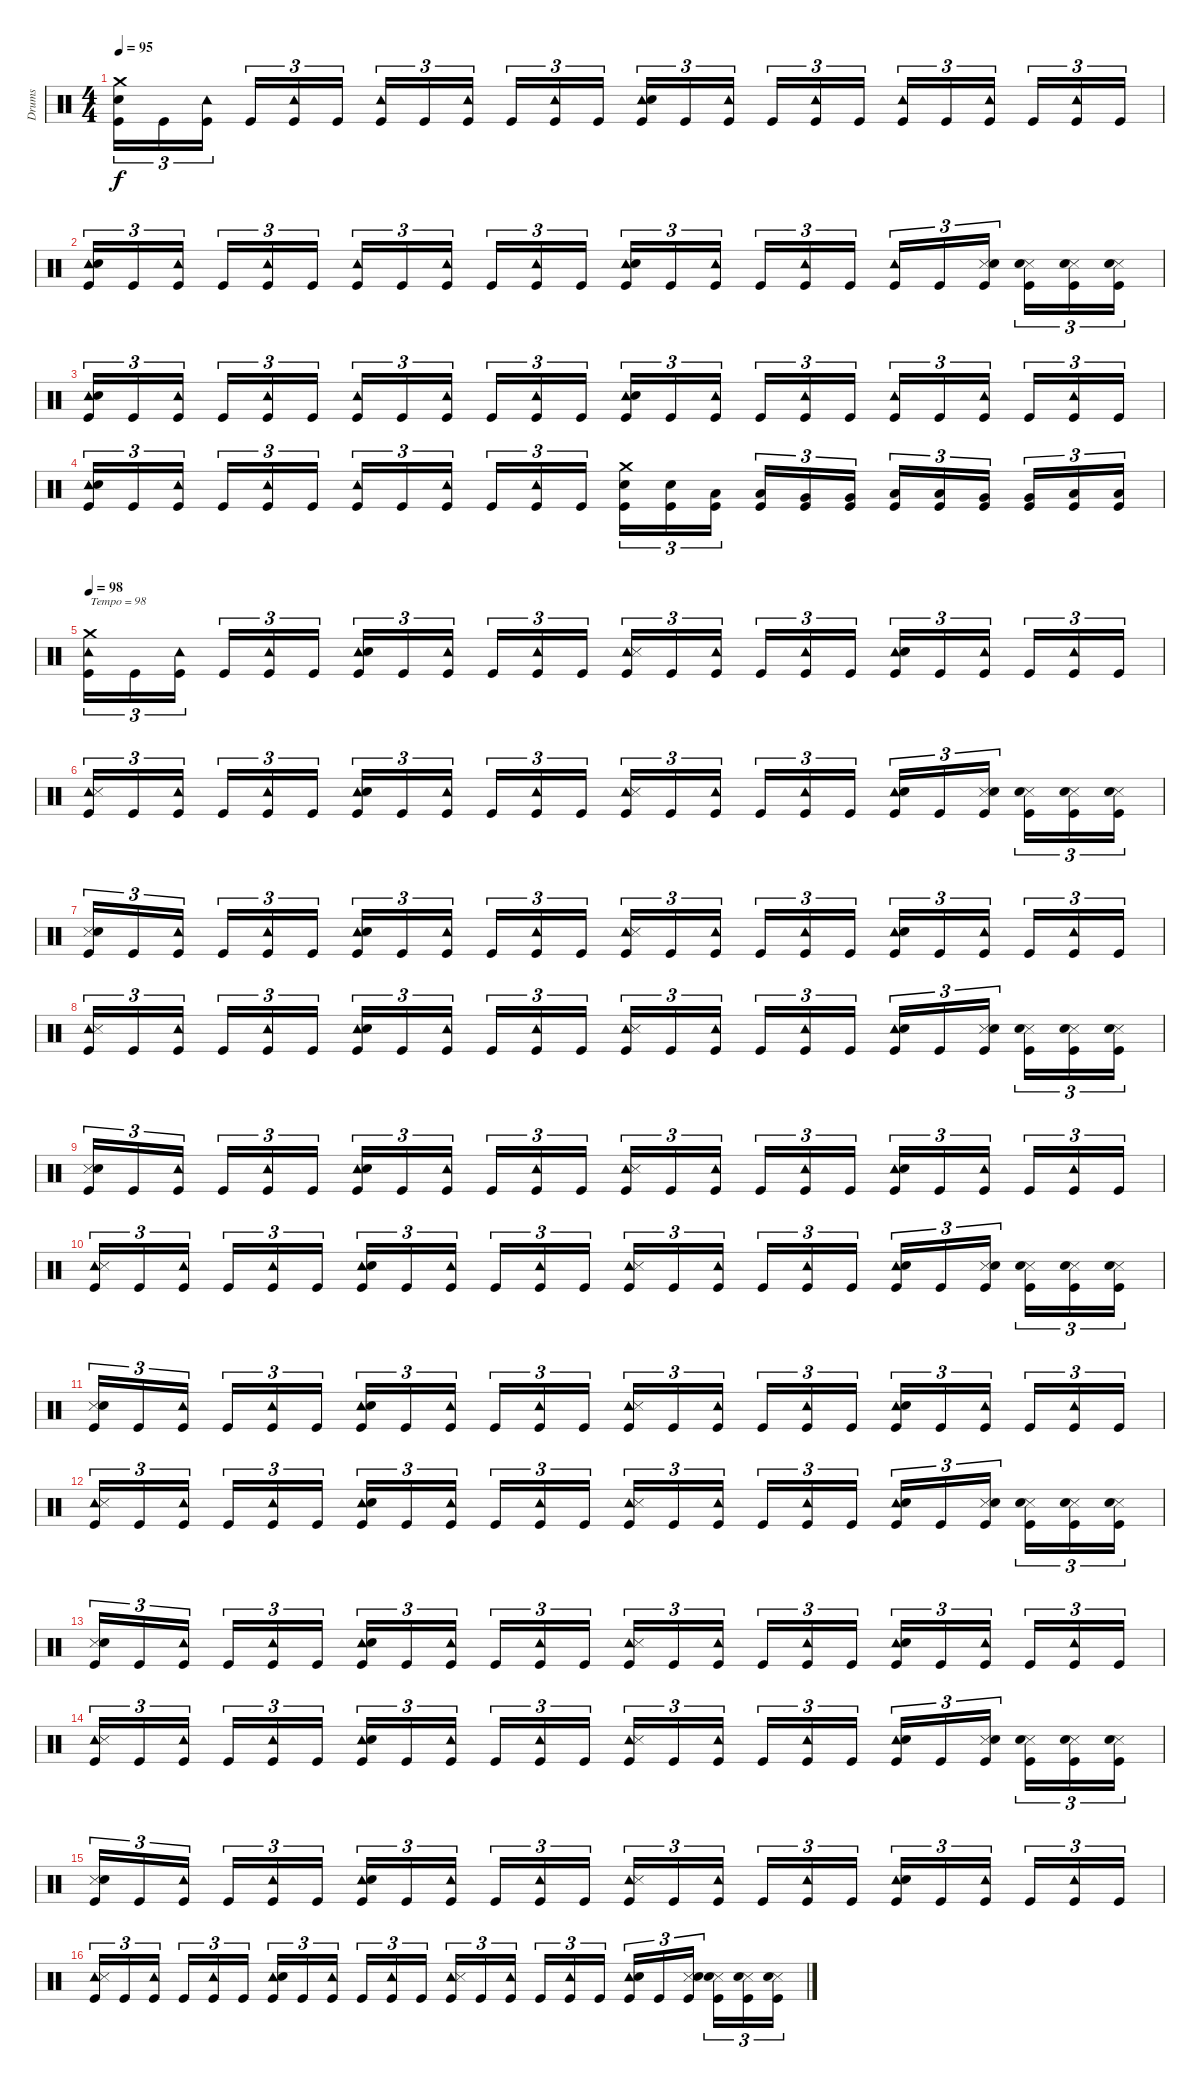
\track ("Drums" "Drums") {instrument percussion}
\staff {score}
\articulation defaults
\ts (4 4)
\tempo 95
\clef neutral
\ks c
("Crash medium (hit)" "Snare (hit) 2" "Kick (hit)").16{tu (3 2) dy f} "Kick (hit)".16{tu (3 2)} ("Tambourine (hit)" "Kick (hit)").16{tu (3 2)} "Kick (hit)".16{tu (3 2)} ("Tambourine (hit)" "Kick (hit)").16{tu (3 2)} "Kick (hit)".16{tu (3 2)} ("Tambourine (hit)" "Kick (hit)").16{tu (3 2)} "Kick (hit)".16{tu (3 2)} ("Tambourine (hit)" "Kick (hit)").16{tu (3 2)} "Kick (hit)".16{tu (3 2)} ("Tambourine (hit)" "Kick (hit)").16{tu (3 2)} "Kick (hit)".16{tu (3 2)} ("Tambourine (hit)" "Snare (hit) 2" "Kick (hit)").16{tu (3 2)} "Kick (hit)".16{tu (3 2)} ("Tambourine (hit)" "Kick (hit)").16{tu (3 2)} "Kick (hit)".16{tu (3 2)} ("Tambourine (hit)" "Kick (hit)").16{tu (3 2)} "Kick (hit)".16{tu (3 2)} ("Tambourine (hit)" "Kick (hit)").16{tu (3 2)} "Kick (hit)".16{tu (3 2)} ("Tambourine (hit)" "Kick (hit)").16{tu (3 2)} "Kick (hit)".16{tu (3 2)} ("Tambourine (hit)" "Kick (hit)").16{tu (3 2)} "Kick (hit)".16{tu (3 2)} |
("Tambourine (hit)" "Snare (hit) 2" "Kick (hit)").16{tu (3 2)} "Kick (hit)".16{tu (3 2)} ("Tambourine (hit)" "Kick (hit)").16{tu (3 2)} "Kick (hit)".16{tu (3 2)} ("Tambourine (hit)" "Kick (hit)").16{tu (3 2)} "Kick (hit)".16{tu (3 2)} ("Tambourine (hit)" "Kick (hit)").16{tu (3 2)} "Kick (hit)".16{tu (3 2)} ("Tambourine (hit)" "Kick (hit)").16{tu (3 2)} "Kick (hit)".16{tu (3 2)} ("Tambourine (hit)" "Kick (hit)").16{tu (3 2)} "Kick (hit)".16{tu (3 2)} ("Tambourine (hit)" "Snare (hit) 2" "Kick (hit)").16{tu (3 2)} "Kick (hit)".16{tu (3 2)} ("Tambourine (hit)" "Kick (hit)").16{tu (3 2)} "Kick (hit)".16{tu (3 2)} ("Tambourine (hit)" "Kick (hit)").16{tu (3 2)} "Kick (hit)".16{tu (3 2)} ("Tambourine (hit)" "Kick (hit)").16{tu (3 2)} "Kick (hit)".16{tu (3 2)} ("Snare (side stick) 3" "Snare (hit) 2" "Kick (hit)").16{tu (3 2)} ("Snare (side stick) 3" "Snare (hit) 2" "Kick (hit)").16{tu (3 2)} ("Snare (side stick) 3" "Snare (hit) 2" "Kick (hit)").16{tu (3 2)} ("Snare (side stick) 3" "Snare (hit) 2" "Kick (hit)").16{tu (3 2)} |
("Tambourine (hit)" "Snare (hit) 2" "Kick (hit)").16{tu (3 2)} "Kick (hit)".16{tu (3 2)} ("Tambourine (hit)" "Kick (hit)").16{tu (3 2)} "Kick (hit)".16{tu (3 2)} ("Tambourine (hit)" "Kick (hit)").16{tu (3 2)} "Kick (hit)".16{tu (3 2)} ("Tambourine (hit)" "Kick (hit)").16{tu (3 2)} "Kick (hit)".16{tu (3 2)} ("Tambourine (hit)" "Kick (hit)").16{tu (3 2)} "Kick (hit)".16{tu (3 2)} ("Tambourine (hit)" "Kick (hit)").16{tu (3 2)} "Kick (hit)".16{tu (3 2)} ("Tambourine (hit)" "Snare (hit) 2" "Kick (hit)").16{tu (3 2)} "Kick (hit)".16{tu (3 2)} ("Tambourine (hit)" "Kick (hit)").16{tu (3 2)} "Kick (hit)".16{tu (3 2)} ("Tambourine (hit)" "Kick (hit)").16{tu (3 2)} "Kick (hit)".16{tu (3 2)} ("Tambourine (hit)" "Kick (hit)").16{tu (3 2)} "Kick (hit)".16{tu (3 2)} ("Tambourine (hit)" "Kick (hit)").16{tu (3 2)} "Kick (hit)".16{tu (3 2)} ("Tambourine (hit)" "Kick (hit)").16{tu (3 2)} "Kick (hit)".16{tu (3 2)} |
("Tambourine (hit)" "Snare (hit) 2" "Kick (hit)").16{tu (3 2)} "Kick (hit)".16{tu (3 2)} ("Tambourine (hit)" "Kick (hit)").16{tu (3 2)} "Kick (hit)".16{tu (3 2)} ("Tambourine (hit)" "Kick (hit)").16{tu (3 2)} "Kick (hit)".16{tu (3 2)} ("Tambourine (hit)" "Kick (hit)").16{tu (3 2)} "Kick (hit)".16{tu (3 2)} ("Tambourine (hit)" "Kick (hit)").16{tu (3 2)} "Kick (hit)".16{tu (3 2)} ("Tambourine (hit)" "Kick (hit)").16{tu (3 2)} "Kick (hit)".16{tu (3 2)} ("Crash medium (hit)" "Snare (hit) 2" "Kick (hit)").16{tu (3 2)} ("Snare (hit) 2" "Kick (hit)").16{tu (3 2)} ("Low Floor Tom (hit)" "Kick (hit)").16{tu (3 2)} ("Low Floor Tom (hit)" "Kick (hit)").16{tu (3 2)} ("Very Low Tom (hit)" "Kick (hit)").16{tu (3 2)} ("Very Low Tom (hit)" "Kick (hit)").16{tu (3 2)} ("Low Floor Tom (hit)" "Kick (hit)").16{tu (3 2)} ("Low Floor Tom (hit)" "Kick (hit)").16{tu (3 2)} ("Very Low Tom (hit)" "Kick (hit)").16{tu (3 2)} ("Very Low Tom (hit)" "Kick (hit)").16{tu (3 2)} ("Low Tom (hit)" "Kick (hit)").16{tu (3 2)} ("Low Tom (hit)" "Kick (hit)").16{tu (3 2)} |
\tempo 98
("Crash medium (hit)" "Tambourine (hit)" "Kick (hit)").16{tu (3 2) txt "Tempo = 98"} "Kick (hit)".16{tu (3 2)} ("Tambourine (hit)" "Kick (hit)").16{tu (3 2)} "Kick (hit)".16{tu (3 2)} ("Tambourine (hit)" "Kick (hit)").16{tu (3 2)} "Kick (hit)".16{tu (3 2)} ("Tambourine (hit)" "Snare (hit) 2" "Kick (hit)").16{tu (3 2)} "Kick (hit)".16{tu (3 2)} ("Tambourine (hit)" "Kick (hit)").16{tu (3 2)} "Kick (hit)".16{tu (3 2)} ("Tambourine (hit)" "Kick (hit)").16{tu (3 2)} "Kick (hit)".16{tu (3 2)} ("Tambourine (hit)" "Snare (side stick) 3" "Kick (hit)").16{tu (3 2)} "Kick (hit)".16{tu (3 2)} ("Tambourine (hit)" "Kick (hit)").16{tu (3 2)} "Kick (hit)".16{tu (3 2)} ("Tambourine (hit)" "Kick (hit)").16{tu (3 2)} "Kick (hit)".16{tu (3 2)} ("Tambourine (hit)" "Snare (hit) 2" "Kick (hit)").16{tu (3 2)} "Kick (hit)".16{tu (3 2)} ("Tambourine (hit)" "Kick (hit)").16{tu (3 2)} "Kick (hit)".16{tu (3 2)} ("Tambourine (hit)" "Kick (hit)").16{tu (3 2)} "Kick (hit)".16{tu (3 2)} |
("Tambourine (hit)" "Snare (side stick) 3" "Kick (hit)").16{tu (3 2)} "Kick (hit)".16{tu (3 2)} ("Tambourine (hit)" "Kick (hit)").16{tu (3 2)} "Kick (hit)".16{tu (3 2)} ("Tambourine (hit)" "Kick (hit)").16{tu (3 2)} "Kick (hit)".16{tu (3 2)} ("Tambourine (hit)" "Snare (hit) 2" "Kick (hit)").16{tu (3 2)} "Kick (hit)".16{tu (3 2)} ("Tambourine (hit)" "Kick (hit)").16{tu (3 2)} "Kick (hit)".16{tu (3 2)} ("Tambourine (hit)" "Kick (hit)").16{tu (3 2)} "Kick (hit)".16{tu (3 2)} ("Tambourine (hit)" "Snare (side stick) 3" "Kick (hit)").16{tu (3 2)} "Kick (hit)".16{tu (3 2)} ("Tambourine (hit)" "Kick (hit)").16{tu (3 2)} "Kick (hit)".16{tu (3 2)} ("Tambourine (hit)" "Kick (hit)").16{tu (3 2)} "Kick (hit)".16{tu (3 2)} ("Tambourine (hit)" "Snare (hit) 2" "Kick (hit)").16{tu (3 2)} "Kick (hit)".16{tu (3 2)} ("Snare (side stick) 3" "Snare (hit) 2" "Kick (hit)").16{tu (3 2)} ("Snare (side stick) 3" "Snare (hit) 2" "Kick (hit)").16{tu (3 2)} ("Snare (side stick) 3" "Snare (hit) 2" "Kick (hit)").16{tu (3 2)} ("Snare (side stick) 3" "Snare (hit) 2" "Kick (hit)").16{tu (3 2)} |
("Snare (side stick) 3" "Snare (hit) 2" "Kick (hit)").16{tu (3 2)} "Kick (hit)".16{tu (3 2)} ("Tambourine (hit)" "Kick (hit)").16{tu (3 2)} "Kick (hit)".16{tu (3 2)} ("Tambourine (hit)" "Kick (hit)").16{tu (3 2)} "Kick (hit)".16{tu (3 2)} ("Tambourine (hit)" "Snare (hit) 2" "Kick (hit)").16{tu (3 2)} "Kick (hit)".16{tu (3 2)} ("Tambourine (hit)" "Kick (hit)").16{tu (3 2)} "Kick (hit)".16{tu (3 2)} ("Tambourine (hit)" "Kick (hit)").16{tu (3 2)} "Kick (hit)".16{tu (3 2)} ("Tambourine (hit)" "Snare (side stick) 3" "Kick (hit)").16{tu (3 2)} "Kick (hit)".16{tu (3 2)} ("Tambourine (hit)" "Kick (hit)").16{tu (3 2)} "Kick (hit)".16{tu (3 2)} ("Tambourine (hit)" "Kick (hit)").16{tu (3 2)} "Kick (hit)".16{tu (3 2)} ("Tambourine (hit)" "Snare (hit) 2" "Kick (hit)").16{tu (3 2)} "Kick (hit)".16{tu (3 2)} ("Tambourine (hit)" "Kick (hit)").16{tu (3 2)} "Kick (hit)".16{tu (3 2)} ("Tambourine (hit)" "Kick (hit)").16{tu (3 2)} "Kick (hit)".16{tu (3 2)} |
("Tambourine (hit)" "Snare (side stick) 3" "Kick (hit)").16{tu (3 2)} "Kick (hit)".16{tu (3 2)} ("Tambourine (hit)" "Kick (hit)").16{tu (3 2)} "Kick (hit)".16{tu (3 2)} ("Tambourine (hit)" "Kick (hit)").16{tu (3 2)} "Kick (hit)".16{tu (3 2)} ("Tambourine (hit)" "Snare (hit) 2" "Kick (hit)").16{tu (3 2)} "Kick (hit)".16{tu (3 2)} ("Tambourine (hit)" "Kick (hit)").16{tu (3 2)} "Kick (hit)".16{tu (3 2)} ("Tambourine (hit)" "Kick (hit)").16{tu (3 2)} "Kick (hit)".16{tu (3 2)} ("Tambourine (hit)" "Snare (side stick) 3" "Kick (hit)").16{tu (3 2)} "Kick (hit)".16{tu (3 2)} ("Tambourine (hit)" "Kick (hit)").16{tu (3 2)} "Kick (hit)".16{tu (3 2)} ("Tambourine (hit)" "Kick (hit)").16{tu (3 2)} "Kick (hit)".16{tu (3 2)} ("Tambourine (hit)" "Snare (hit) 2" "Kick (hit)").16{tu (3 2)} "Kick (hit)".16{tu (3 2)} ("Snare (side stick) 3" "Snare (hit) 2" "Kick (hit)").16{tu (3 2)} ("Snare (side stick) 3" "Snare (hit) 2" "Kick (hit)").16{tu (3 2)} ("Snare (side stick) 3" "Snare (hit) 2" "Kick (hit)").16{tu (3 2)} ("Snare (side stick) 3" "Snare (hit) 2" "Kick (hit)").16{tu (3 2)} |
("Snare (side stick) 3" "Snare (hit) 2" "Kick (hit)").16{tu (3 2)} "Kick (hit)".16{tu (3 2)} ("Tambourine (hit)" "Kick (hit)").16{tu (3 2)} "Kick (hit)".16{tu (3 2)} ("Tambourine (hit)" "Kick (hit)").16{tu (3 2)} "Kick (hit)".16{tu (3 2)} ("Tambourine (hit)" "Snare (hit) 2" "Kick (hit)").16{tu (3 2)} "Kick (hit)".16{tu (3 2)} ("Tambourine (hit)" "Kick (hit)").16{tu (3 2)} "Kick (hit)".16{tu (3 2)} ("Tambourine (hit)" "Kick (hit)").16{tu (3 2)} "Kick (hit)".16{tu (3 2)} ("Tambourine (hit)" "Snare (side stick) 3" "Kick (hit)").16{tu (3 2)} "Kick (hit)".16{tu (3 2)} ("Tambourine (hit)" "Kick (hit)").16{tu (3 2)} "Kick (hit)".16{tu (3 2)} ("Tambourine (hit)" "Kick (hit)").16{tu (3 2)} "Kick (hit)".16{tu (3 2)} ("Tambourine (hit)" "Snare (hit) 2" "Kick (hit)").16{tu (3 2)} "Kick (hit)".16{tu (3 2)} ("Tambourine (hit)" "Kick (hit)").16{tu (3 2)} "Kick (hit)".16{tu (3 2)} ("Tambourine (hit)" "Kick (hit)").16{tu (3 2)} "Kick (hit)".16{tu (3 2)} |
("Tambourine (hit)" "Snare (side stick) 3" "Kick (hit)").16{tu (3 2)} "Kick (hit)".16{tu (3 2)} ("Tambourine (hit)" "Kick (hit)").16{tu (3 2)} "Kick (hit)".16{tu (3 2)} ("Tambourine (hit)" "Kick (hit)").16{tu (3 2)} "Kick (hit)".16{tu (3 2)} ("Tambourine (hit)" "Snare (hit) 2" "Kick (hit)").16{tu (3 2)} "Kick (hit)".16{tu (3 2)} ("Tambourine (hit)" "Kick (hit)").16{tu (3 2)} "Kick (hit)".16{tu (3 2)} ("Tambourine (hit)" "Kick (hit)").16{tu (3 2)} "Kick (hit)".16{tu (3 2)} ("Tambourine (hit)" "Snare (side stick) 3" "Kick (hit)").16{tu (3 2)} "Kick (hit)".16{tu (3 2)} ("Tambourine (hit)" "Kick (hit)").16{tu (3 2)} "Kick (hit)".16{tu (3 2)} ("Tambourine (hit)" "Kick (hit)").16{tu (3 2)} "Kick (hit)".16{tu (3 2)} ("Tambourine (hit)" "Snare (hit) 2" "Kick (hit)").16{tu (3 2)} "Kick (hit)".16{tu (3 2)} ("Snare (side stick) 3" "Snare (hit) 2" "Kick (hit)").16{tu (3 2)} ("Snare (side stick) 3" "Snare (hit) 2" "Kick (hit)").16{tu (3 2)} ("Snare (side stick) 3" "Snare (hit) 2" "Kick (hit)").16{tu (3 2)} ("Snare (side stick) 3" "Snare (hit) 2" "Kick (hit)").16{tu (3 2)} |
("Snare (side stick) 3" "Snare (hit) 2" "Kick (hit)").16{tu (3 2)} "Kick (hit)".16{tu (3 2)} ("Tambourine (hit)" "Kick (hit)").16{tu (3 2)} "Kick (hit)".16{tu (3 2)} ("Tambourine (hit)" "Kick (hit)").16{tu (3 2)} "Kick (hit)".16{tu (3 2)} ("Tambourine (hit)" "Snare (hit) 2" "Kick (hit)").16{tu (3 2)} "Kick (hit)".16{tu (3 2)} ("Tambourine (hit)" "Kick (hit)").16{tu (3 2)} "Kick (hit)".16{tu (3 2)} ("Tambourine (hit)" "Kick (hit)").16{tu (3 2)} "Kick (hit)".16{tu (3 2)} ("Tambourine (hit)" "Snare (side stick) 3" "Kick (hit)").16{tu (3 2)} "Kick (hit)".16{tu (3 2)} ("Tambourine (hit)" "Kick (hit)").16{tu (3 2)} "Kick (hit)".16{tu (3 2)} ("Tambourine (hit)" "Kick (hit)").16{tu (3 2)} "Kick (hit)".16{tu (3 2)} ("Tambourine (hit)" "Snare (hit) 2" "Kick (hit)").16{tu (3 2)} "Kick (hit)".16{tu (3 2)} ("Tambourine (hit)" "Kick (hit)").16{tu (3 2)} "Kick (hit)".16{tu (3 2)} ("Tambourine (hit)" "Kick (hit)").16{tu (3 2)} "Kick (hit)".16{tu (3 2)} |
("Tambourine (hit)" "Snare (side stick) 3" "Kick (hit)").16{tu (3 2)} "Kick (hit)".16{tu (3 2)} ("Tambourine (hit)" "Kick (hit)").16{tu (3 2)} "Kick (hit)".16{tu (3 2)} ("Tambourine (hit)" "Kick (hit)").16{tu (3 2)} "Kick (hit)".16{tu (3 2)} ("Tambourine (hit)" "Snare (hit) 2" "Kick (hit)").16{tu (3 2)} "Kick (hit)".16{tu (3 2)} ("Tambourine (hit)" "Kick (hit)").16{tu (3 2)} "Kick (hit)".16{tu (3 2)} ("Tambourine (hit)" "Kick (hit)").16{tu (3 2)} "Kick (hit)".16{tu (3 2)} ("Tambourine (hit)" "Snare (side stick) 3" "Kick (hit)").16{tu (3 2)} "Kick (hit)".16{tu (3 2)} ("Tambourine (hit)" "Kick (hit)").16{tu (3 2)} "Kick (hit)".16{tu (3 2)} ("Tambourine (hit)" "Kick (hit)").16{tu (3 2)} "Kick (hit)".16{tu (3 2)} ("Tambourine (hit)" "Snare (hit) 2" "Kick (hit)").16{tu (3 2)} "Kick (hit)".16{tu (3 2)} ("Snare (side stick) 3" "Snare (hit) 2" "Kick (hit)").16{tu (3 2)} ("Snare (side stick) 3" "Snare (hit) 2" "Kick (hit)").16{tu (3 2)} ("Snare (side stick) 3" "Snare (hit) 2" "Kick (hit)").16{tu (3 2)} ("Snare (side stick) 3" "Snare (hit) 2" "Kick (hit)").16{tu (3 2)} |
("Snare (side stick) 3" "Snare (hit) 2" "Kick (hit)").16{tu (3 2)} "Kick (hit)".16{tu (3 2)} ("Tambourine (hit)" "Kick (hit)").16{tu (3 2)} "Kick (hit)".16{tu (3 2)} ("Tambourine (hit)" "Kick (hit)").16{tu (3 2)} "Kick (hit)".16{tu (3 2)} ("Tambourine (hit)" "Snare (hit) 2" "Kick (hit)").16{tu (3 2)} "Kick (hit)".16{tu (3 2)} ("Tambourine (hit)" "Kick (hit)").16{tu (3 2)} "Kick (hit)".16{tu (3 2)} ("Tambourine (hit)" "Kick (hit)").16{tu (3 2)} "Kick (hit)".16{tu (3 2)} ("Tambourine (hit)" "Snare (side stick) 3" "Kick (hit)").16{tu (3 2)} "Kick (hit)".16{tu (3 2)} ("Tambourine (hit)" "Kick (hit)").16{tu (3 2)} "Kick (hit)".16{tu (3 2)} ("Tambourine (hit)" "Kick (hit)").16{tu (3 2)} "Kick (hit)".16{tu (3 2)} ("Tambourine (hit)" "Snare (hit) 2" "Kick (hit)").16{tu (3 2)} "Kick (hit)".16{tu (3 2)} ("Tambourine (hit)" "Kick (hit)").16{tu (3 2)} "Kick (hit)".16{tu (3 2)} ("Tambourine (hit)" "Kick (hit)").16{tu (3 2)} "Kick (hit)".16{tu (3 2)} |
("Tambourine (hit)" "Snare (side stick) 3" "Kick (hit)").16{tu (3 2)} "Kick (hit)".16{tu (3 2)} ("Tambourine (hit)" "Kick (hit)").16{tu (3 2)} "Kick (hit)".16{tu (3 2)} ("Tambourine (hit)" "Kick (hit)").16{tu (3 2)} "Kick (hit)".16{tu (3 2)} ("Tambourine (hit)" "Snare (hit) 2" "Kick (hit)").16{tu (3 2)} "Kick (hit)".16{tu (3 2)} ("Tambourine (hit)" "Kick (hit)").16{tu (3 2)} "Kick (hit)".16{tu (3 2)} ("Tambourine (hit)" "Kick (hit)").16{tu (3 2)} "Kick (hit)".16{tu (3 2)} ("Tambourine (hit)" "Snare (side stick) 3" "Kick (hit)").16{tu (3 2)} "Kick (hit)".16{tu (3 2)} ("Tambourine (hit)" "Kick (hit)").16{tu (3 2)} "Kick (hit)".16{tu (3 2)} ("Tambourine (hit)" "Kick (hit)").16{tu (3 2)} "Kick (hit)".16{tu (3 2)} ("Tambourine (hit)" "Snare (hit) 2" "Kick (hit)").16{tu (3 2)} "Kick (hit)".16{tu (3 2)} ("Snare (side stick) 3" "Snare (hit) 2" "Kick (hit)").16{tu (3 2)} ("Snare (side stick) 3" "Snare (hit) 2" "Kick (hit)").16{tu (3 2)} ("Snare (side stick) 3" "Snare (hit) 2" "Kick (hit)").16{tu (3 2)} ("Snare (side stick) 3" "Snare (hit) 2" "Kick (hit)").16{tu (3 2)} |
("Snare (side stick) 3" "Snare (hit) 2" "Kick (hit)").16{tu (3 2)} "Kick (hit)".16{tu (3 2)} ("Tambourine (hit)" "Kick (hit)").16{tu (3 2)} "Kick (hit)".16{tu (3 2)} ("Tambourine (hit)" "Kick (hit)").16{tu (3 2)} "Kick (hit)".16{tu (3 2)} ("Tambourine (hit)" "Snare (hit) 2" "Kick (hit)").16{tu (3 2)} "Kick (hit)".16{tu (3 2)} ("Tambourine (hit)" "Kick (hit)").16{tu (3 2)} "Kick (hit)".16{tu (3 2)} ("Tambourine (hit)" "Kick (hit)").16{tu (3 2)} "Kick (hit)".16{tu (3 2)} ("Tambourine (hit)" "Snare (side stick) 3" "Kick (hit)").16{tu (3 2)} "Kick (hit)".16{tu (3 2)} ("Tambourine (hit)" "Kick (hit)").16{tu (3 2)} "Kick (hit)".16{tu (3 2)} ("Tambourine (hit)" "Kick (hit)").16{tu (3 2)} "Kick (hit)".16{tu (3 2)} ("Tambourine (hit)" "Snare (hit) 2" "Kick (hit)").16{tu (3 2)} "Kick (hit)".16{tu (3 2)} ("Tambourine (hit)" "Kick (hit)").16{tu (3 2)} "Kick (hit)".16{tu (3 2)} ("Tambourine (hit)" "Kick (hit)").16{tu (3 2)} "Kick (hit)".16{tu (3 2)} |
("Tambourine (hit)" "Snare (side stick) 3" "Kick (hit)").16{tu (3 2)} "Kick (hit)".16{tu (3 2)} ("Tambourine (hit)" "Kick (hit)").16{tu (3 2)} "Kick (hit)".16{tu (3 2)} ("Tambourine (hit)" "Kick (hit)").16{tu (3 2)} "Kick (hit)".16{tu (3 2)} ("Tambourine (hit)" "Snare (hit) 2" "Kick (hit)").16{tu (3 2)} "Kick (hit)".16{tu (3 2)} ("Tambourine (hit)" "Kick (hit)").16{tu (3 2)} "Kick (hit)".16{tu (3 2)} ("Tambourine (hit)" "Kick (hit)").16{tu (3 2)} "Kick (hit)".16{tu (3 2)} ("Tambourine (hit)" "Snare (side stick) 3" "Kick (hit)").16{tu (3 2)} "Kick (hit)".16{tu (3 2)} ("Tambourine (hit)" "Kick (hit)").16{tu (3 2)} "Kick (hit)".16{tu (3 2)} ("Tambourine (hit)" "Kick (hit)").16{tu (3 2)} "Kick (hit)".16{tu (3 2)} ("Tambourine (hit)" "Snare (hit) 2" "Kick (hit)").16{tu (3 2)} "Kick (hit)".16{tu (3 2)} ("Snare (side stick) 3" "Snare (hit) 2" "Kick (hit)").16{tu (3 2)} ("Snare (side stick) 3" "Snare (hit) 2" "Kick (hit)").16{tu (3 2)} ("Snare (side stick) 3" "Snare (hit) 2" "Kick (hit)").16{tu (3 2)} ("Snare (side stick) 3" "Snare (hit) 2" "Kick (hit)").16{tu (3 2)}
